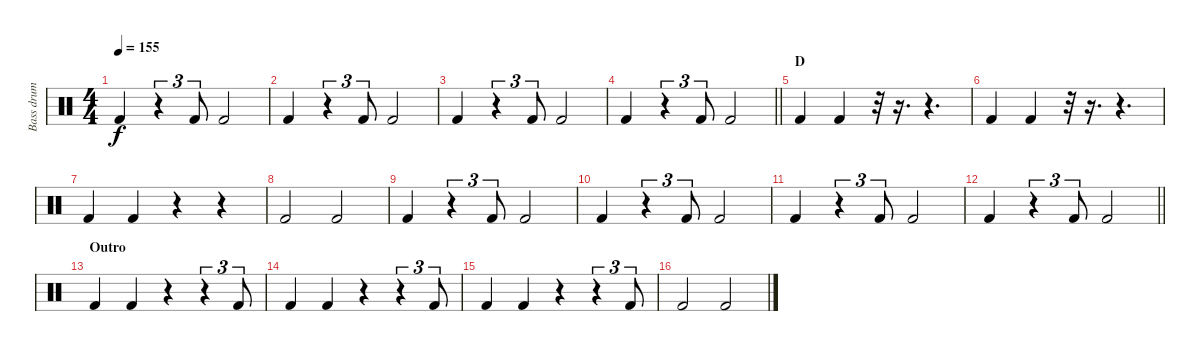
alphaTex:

\track ("Bass drum" "Bass drum") {instrument percussion}
\staff {score}
\articulation defaults
\ts (4 4)
\tempo 155
\clef neutral
\ks c "Kick (hit) 2".4{dy f}
r.4{tu (3 2)} "Kick (hit) 2".8{tu (3 2)} "Kick (hit) 2".2 |
"Kick (hit) 2".4 r.4{tu (3 2)} "Kick (hit) 2".8{tu (3 2)} "Kick (hit) 2".2 |
"Kick (hit) 2".4 r.4{tu (3 2)} "Kick (hit) 2".8{tu (3 2)} "Kick (hit) 2".2 |
\barLineRight lightlight "Kick (hit) 2".4
r.4{tu (3 2)} "Kick (hit) 2".8{tu (3 2)} "Kick (hit) 2".2 |
\section ("" "D")
"Kick (hit) 2".4 "Kick (hit) 2".4 r.32 r.16{d} r.4{d} |
"Kick (hit) 2".4 "Kick (hit) 2".4 r.32 r.16{d} r.4{d} |
"Kick (hit) 2".4 "Kick (hit) 2".4 r.4 r.4 |
"Kick (hit) 2".2 "Kick (hit) 2".2 |
"Kick (hit) 2".4 r.4{tu (3 2)} "Kick (hit) 2".8{tu (3 2)} "Kick (hit) 2".2 |
"Kick (hit) 2".4 r.4{tu (3 2)} "Kick (hit) 2".8{tu (3 2)} "Kick (hit) 2".2 |
"Kick (hit) 2".4 r.4{tu (3 2)} "Kick (hit) 2".8{tu (3 2)} "Kick (hit) 2".2 |
\barLineRight lightlight "Kick (hit) 2".4
r.4{tu (3 2)} "Kick (hit) 2".8{tu (3 2)} "Kick (hit) 2".2 |
\section ("" "Outro")
"Kick (hit) 2".4 "Kick (hit) 2".4 r.4 r.4{tu (3 2)} "Kick (hit) 2".8{tu (3 2)} |
"Kick (hit) 2".4 "Kick (hit) 2".4 r.4 r.4{tu (3 2)} "Kick (hit) 2".8{tu (3 2)} |
"Kick (hit) 2".4 "Kick (hit) 2".4 r.4 r.4{tu (3 2)} "Kick (hit) 2".8{tu (3 2)} |
"Kick (hit) 2".2 "Kick (hit) 2".2
